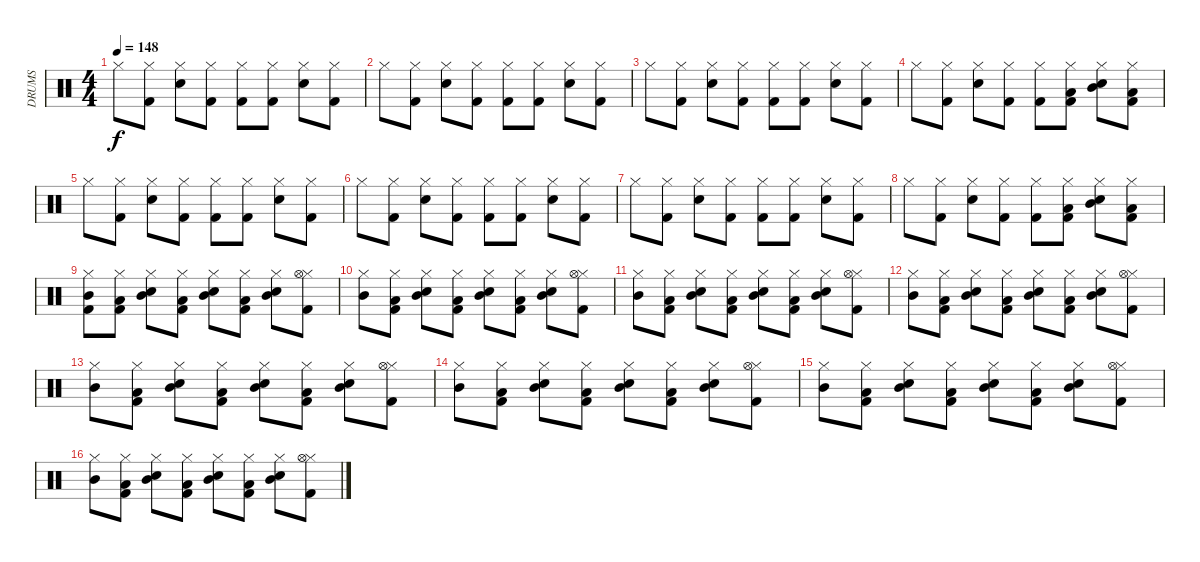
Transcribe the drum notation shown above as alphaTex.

\track ("DRUMS" "DRUMS") {instrument percussion}
\staff {score}
\articulation defaults
\ts (4 4)
\tempo 148
\clef neutral
\ks c "Hi-Hat (closed)".8{dy f}
("Hi-Hat (closed)" "Kick (hit) 2").8 ("Hi-Hat (closed)" "Snare (hit) 2").8 ("Hi-Hat (closed)" "Kick (hit) 2").8 ("Hi-Hat (closed)" "Kick (hit) 2").8 ("Hi-Hat (closed)" "Kick (hit) 2").8 ("Hi-Hat (closed)" "Snare (hit) 2").8 ("Hi-Hat (closed)" "Kick (hit) 2").8 |
"Hi-Hat (closed)".8 ("Hi-Hat (closed)" "Kick (hit) 2").8 ("Hi-Hat (closed)" "Snare (hit) 2").8 ("Hi-Hat (closed)" "Kick (hit) 2").8 ("Hi-Hat (closed)" "Kick (hit) 2").8 ("Hi-Hat (closed)" "Kick (hit) 2").8 ("Hi-Hat (closed)" "Snare (hit) 2").8 ("Hi-Hat (closed)" "Kick (hit) 2").8 |
"Hi-Hat (closed)".8 ("Hi-Hat (closed)" "Kick (hit) 2").8 ("Hi-Hat (closed)" "Snare (hit) 2").8 ("Hi-Hat (closed)" "Kick (hit) 2").8 ("Hi-Hat (closed)" "Kick (hit) 2").8 ("Hi-Hat (closed)" "Kick (hit) 2").8 ("Hi-Hat (closed)" "Snare (hit) 2").8 ("Hi-Hat (closed)" "Kick (hit) 2").8 |
"Hi-Hat (closed)".8 ("Hi-Hat (closed)" "Kick (hit) 2").8 ("Hi-Hat (closed)" "Snare (hit) 2").8 ("Hi-Hat (closed)" "Kick (hit) 2").8 ("Hi-Hat (closed)" "Kick (hit) 2").8 ("Hi-Hat (closed)" "Low Tom (hit)" "Kick (hit) 2").8 ("Hi-Hat (closed)" "Mid Tom (hit)" "Snare (hit) 2").8 ("Hi-Hat (closed)" "Low Tom (hit)" "Kick (hit) 2").8 |
"Hi-Hat (closed)".8 ("Hi-Hat (closed)" "Kick (hit) 2").8 ("Hi-Hat (closed)" "Snare (hit) 2").8 ("Hi-Hat (closed)" "Kick (hit) 2").8 ("Hi-Hat (closed)" "Kick (hit) 2").8 ("Hi-Hat (closed)" "Kick (hit) 2").8 ("Hi-Hat (closed)" "Snare (hit) 2").8 ("Hi-Hat (closed)" "Kick (hit) 2").8 |
"Hi-Hat (closed)".8 ("Hi-Hat (closed)" "Kick (hit) 2").8 ("Hi-Hat (closed)" "Snare (hit) 2").8 ("Hi-Hat (closed)" "Kick (hit) 2").8 ("Hi-Hat (closed)" "Kick (hit) 2").8 ("Hi-Hat (closed)" "Kick (hit) 2").8 ("Hi-Hat (closed)" "Snare (hit) 2").8 ("Hi-Hat (closed)" "Kick (hit) 2").8 |
"Hi-Hat (closed)".8 ("Hi-Hat (closed)" "Kick (hit) 2").8 ("Hi-Hat (closed)" "Snare (hit) 2").8 ("Hi-Hat (closed)" "Kick (hit) 2").8 ("Hi-Hat (closed)" "Kick (hit) 2").8 ("Hi-Hat (closed)" "Kick (hit) 2").8 ("Hi-Hat (closed)" "Snare (hit) 2").8 ("Hi-Hat (closed)" "Kick (hit) 2").8 |
"Hi-Hat (closed)".8 ("Hi-Hat (closed)" "Kick (hit) 2").8 ("Hi-Hat (closed)" "Snare (hit) 2").8 ("Hi-Hat (closed)" "Kick (hit) 2").8 ("Hi-Hat (closed)" "Kick (hit) 2").8 ("Hi-Hat (closed)" "Low Tom (hit)" "Kick (hit) 2").8 ("Hi-Hat (closed)" "Mid Tom (hit)" "Snare (hit) 2").8 ("Hi-Hat (closed)" "Low Tom (hit)" "Kick (hit) 2").8 |
("Hi-Hat (closed)" "Mid Tom (hit)" "Kick (hit) 2").8 ("Hi-Hat (closed)" "Low Tom (hit)" "Kick (hit) 2").8 ("Hi-Hat (closed)" "Mid Tom (hit)" "Snare (hit) 2").8 ("Hi-Hat (closed)" "Low Tom (hit)" "Kick (hit) 2").8 ("Hi-Hat (closed)" "Mid Tom (hit)" "Snare (hit) 2").8 ("Hi-Hat (closed)" "Low Tom (hit)" "Kick (hit) 2").8 ("Hi-Hat (closed)" "Mid Tom (hit)" "Snare (hit) 2").8 ("Hi-Hat (closed)" "Hi-Hat (open)" "Kick (hit) 2").8 |
("Hi-Hat (closed)" "Mid Tom (hit)").8 ("Hi-Hat (closed)" "Low Tom (hit)" "Kick (hit) 2").8 ("Hi-Hat (closed)" "Mid Tom (hit)" "Snare (hit) 2").8 ("Hi-Hat (closed)" "Low Tom (hit)" "Kick (hit) 2").8 ("Hi-Hat (closed)" "Mid Tom (hit)" "Snare (hit) 2").8 ("Hi-Hat (closed)" "Low Tom (hit)" "Kick (hit) 2").8 ("Hi-Hat (closed)" "Mid Tom (hit)" "Snare (hit) 2").8 ("Hi-Hat (closed)" "Hi-Hat (open)" "Kick (hit) 2").8 |
("Hi-Hat (closed)" "Mid Tom (hit)").8 ("Hi-Hat (closed)" "Low Tom (hit)" "Kick (hit) 2").8 ("Hi-Hat (closed)" "Mid Tom (hit)" "Snare (hit) 2").8 ("Hi-Hat (closed)" "Low Tom (hit)" "Kick (hit) 2").8 ("Hi-Hat (closed)" "Mid Tom (hit)" "Snare (hit) 2").8 ("Hi-Hat (closed)" "Low Tom (hit)" "Kick (hit) 2").8 ("Hi-Hat (closed)" "Mid Tom (hit)" "Snare (hit) 2").8 ("Hi-Hat (closed)" "Hi-Hat (open)" "Kick (hit) 2").8 |
("Hi-Hat (closed)" "Mid Tom (hit)").8 ("Hi-Hat (closed)" "Low Tom (hit)" "Kick (hit) 2").8 ("Hi-Hat (closed)" "Mid Tom (hit)" "Snare (hit) 2").8 ("Hi-Hat (closed)" "Low Tom (hit)" "Kick (hit) 2").8 ("Hi-Hat (closed)" "Mid Tom (hit)" "Snare (hit) 2").8 ("Hi-Hat (closed)" "Low Tom (hit)" "Kick (hit) 2").8 ("Hi-Hat (closed)" "Mid Tom (hit)" "Snare (hit) 2").8 ("Hi-Hat (closed)" "Hi-Hat (open)" "Kick (hit) 2").8 |
("Hi-Hat (closed)" "Mid Tom (hit)").8 ("Hi-Hat (closed)" "Low Tom (hit)" "Kick (hit) 2").8 ("Hi-Hat (closed)" "Mid Tom (hit)" "Snare (hit) 2").8 ("Hi-Hat (closed)" "Low Tom (hit)" "Kick (hit) 2").8 ("Hi-Hat (closed)" "Mid Tom (hit)" "Snare (hit) 2").8 ("Hi-Hat (closed)" "Low Tom (hit)" "Kick (hit) 2").8 ("Hi-Hat (closed)" "Mid Tom (hit)" "Snare (hit) 2").8 ("Hi-Hat (closed)" "Hi-Hat (open)" "Kick (hit) 2").8 |
("Hi-Hat (closed)" "Mid Tom (hit)").8 ("Hi-Hat (closed)" "Low Tom (hit)" "Kick (hit) 2").8 ("Hi-Hat (closed)" "Mid Tom (hit)" "Snare (hit) 2").8 ("Hi-Hat (closed)" "Low Tom (hit)" "Kick (hit) 2").8 ("Hi-Hat (closed)" "Mid Tom (hit)" "Snare (hit) 2").8 ("Hi-Hat (closed)" "Low Tom (hit)" "Kick (hit) 2").8 ("Hi-Hat (closed)" "Mid Tom (hit)" "Snare (hit) 2").8 ("Hi-Hat (closed)" "Hi-Hat (open)" "Kick (hit) 2").8 |
("Hi-Hat (closed)" "Mid Tom (hit)").8 ("Hi-Hat (closed)" "Low Tom (hit)" "Kick (hit) 2").8 ("Hi-Hat (closed)" "Mid Tom (hit)" "Snare (hit) 2").8 ("Hi-Hat (closed)" "Low Tom (hit)" "Kick (hit) 2").8 ("Hi-Hat (closed)" "Mid Tom (hit)" "Snare (hit) 2").8 ("Hi-Hat (closed)" "Low Tom (hit)" "Kick (hit) 2").8 ("Hi-Hat (closed)" "Mid Tom (hit)" "Snare (hit) 2").8 ("Hi-Hat (closed)" "Hi-Hat (open)" "Kick (hit) 2").8 |
("Hi-Hat (closed)" "Mid Tom (hit)").8 ("Hi-Hat (closed)" "Low Tom (hit)" "Kick (hit) 2").8 ("Hi-Hat (closed)" "Mid Tom (hit)" "Snare (hit) 2").8 ("Hi-Hat (closed)" "Low Tom (hit)" "Kick (hit) 2").8 ("Hi-Hat (closed)" "Mid Tom (hit)" "Snare (hit) 2").8 ("Hi-Hat (closed)" "Low Tom (hit)" "Kick (hit) 2").8 ("Hi-Hat (closed)" "Mid Tom (hit)" "Snare (hit) 2").8 ("Hi-Hat (closed)" "Hi-Hat (open)" "Kick (hit) 2").8
